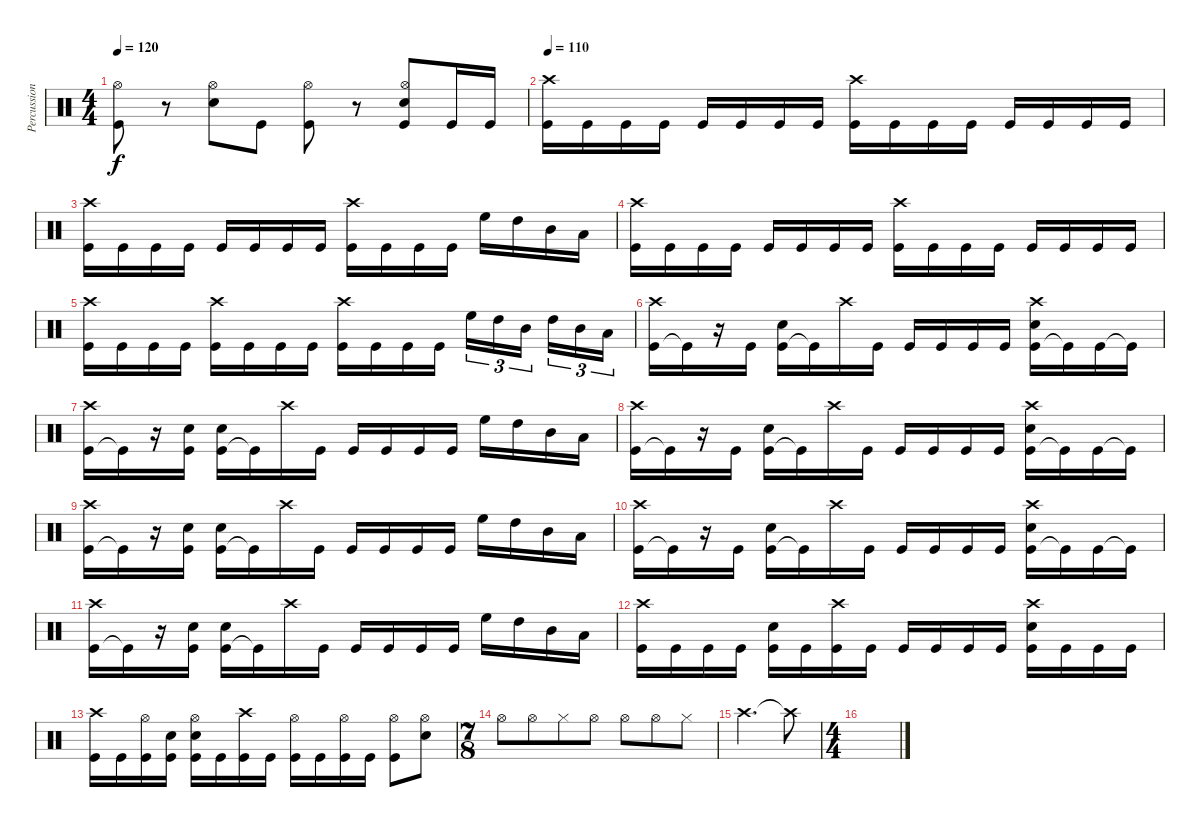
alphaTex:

\track ("Percussion" "Percussion") {instrument percussion}
\staff {score}
\articulation defaults
\ts (4 4)
\tempo 120
\clef neutral
\ks c
("Kick (hit)" "Hi-Hat (open)").8{dy f} r.8 ("Hi-Hat (open)" "Snare (hit) 2").8 "Kick (hit)".8 ("Kick (hit)" "Hi-Hat (open)").8 r.8 ("Kick (hit)" "Hi-Hat (open)" "Snare (hit) 2").8 "Kick (hit)".16 "Kick (hit)".16 |
\tempo 110
("Kick (hit)" "Crash high (hit)").16 "Kick (hit)".16 "Kick (hit)".16 "Kick (hit)".16 "Kick (hit)".16 "Kick (hit)".16 "Kick (hit)".16 "Kick (hit)".16 ("Kick (hit)" "Crash high (hit)").16 "Kick (hit)".16 "Kick (hit)".16 "Kick (hit)".16 "Kick (hit)".16 "Kick (hit)".16 "Kick (hit)".16 "Kick (hit)".16 |
("Kick (hit)" "Crash high (hit)").16 "Kick (hit)".16 "Kick (hit)".16 "Kick (hit)".16 "Kick (hit)".16 "Kick (hit)".16 "Kick (hit)".16 "Kick (hit)".16 ("Kick (hit)" "Crash high (hit)").16 "Kick (hit)".16 "Kick (hit)".16 "Kick (hit)".16 "High Floor Tom (hit)".16 "High Tom (hit)".16 "Mid Tom (hit)".16 "Low Tom (hit)".16 |
("Kick (hit)" "Crash high (hit)").16 "Kick (hit)".16 "Kick (hit)".16 "Kick (hit)".16 "Kick (hit)".16 "Kick (hit)".16 "Kick (hit)".16 "Kick (hit)".16 ("Kick (hit)" "Crash high (hit)").16 "Kick (hit)".16 "Kick (hit)".16 "Kick (hit)".16 "Kick (hit)".16 "Kick (hit)".16 "Kick (hit)".16 "Kick (hit)".16 |
("Kick (hit)" "Crash high (hit)").16 "Kick (hit)".16 "Kick (hit)".16 "Kick (hit)".16 ("Kick (hit)" "Crash high (hit)").16 "Kick (hit)".16 "Kick (hit)".16 "Kick (hit)".16 ("Kick (hit)" "Crash high (hit)").16 "Kick (hit)".16 "Kick (hit)".16 "Kick (hit)".16 "High Floor Tom (hit)".16{tu (3 2)} "High Tom (hit)".16{tu (3 2)} "Mid Tom (hit)".16{tu (3 2) beam splitsecondary} "High Tom (hit)".16{tu (3 2)} "Mid Tom (hit)".16{tu (3 2)} "Low Tom (hit)".16{tu (3 2)} |
("Kick (hit)" "Crash high (hit)").16 "Kick (hit)"{t}.16 r.16 "Kick (hit)".16 ("Kick (hit)" "Snare (hit) 2").16 "Kick (hit)"{t}.16 "Crash high (hit)".16 "Kick (hit)".16 "Kick (hit)".16 "Kick (hit)".16 "Kick (hit)".16 "Kick (hit)".16 ("Kick (hit)" "Crash high (hit)" "Snare (hit) 2").16 "Kick (hit)"{t}.16 "Kick (hit)".16 "Kick (hit)"{t}.16 |
("Kick (hit)" "Crash high (hit)").16 "Kick (hit)"{t}.16 r.16 ("Kick (hit)" "Snare (hit) 2").16 ("Kick (hit)" "Snare (hit) 2").16 "Kick (hit)"{t}.16 "Crash high (hit)".16 "Kick (hit)".16 "Kick (hit)".16 "Kick (hit)".16 "Kick (hit)".16 "Kick (hit)".16 "High Floor Tom (hit)".16 "High Tom (hit)".16 "Mid Tom (hit)".16 "Low Tom (hit)".16 |
("Kick (hit)" "Crash high (hit)").16 "Kick (hit)"{t}.16 r.16 "Kick (hit)".16 ("Kick (hit)" "Snare (hit) 2").16 "Kick (hit)"{t}.16 "Crash high (hit)".16 "Kick (hit)".16 "Kick (hit)".16 "Kick (hit)".16 "Kick (hit)".16 "Kick (hit)".16 ("Kick (hit)" "Crash high (hit)" "Snare (hit) 2").16 "Kick (hit)"{t}.16 "Kick (hit)".16 "Kick (hit)"{t}.16 |
("Kick (hit)" "Crash high (hit)").16 "Kick (hit)"{t}.16 r.16 ("Kick (hit)" "Snare (hit) 2").16 ("Kick (hit)" "Snare (hit) 2").16 "Kick (hit)"{t}.16 "Crash high (hit)".16 "Kick (hit)".16 "Kick (hit)".16 "Kick (hit)".16 "Kick (hit)".16 "Kick (hit)".16 "High Floor Tom (hit)".16 "High Tom (hit)".16 "Mid Tom (hit)".16 "Low Tom (hit)".16 |
("Kick (hit)" "Crash high (hit)").16 "Kick (hit)"{t}.16 r.16 "Kick (hit)".16 ("Kick (hit)" "Snare (hit) 2").16 "Kick (hit)"{t}.16 "Crash high (hit)".16 "Kick (hit)".16 "Kick (hit)".16 "Kick (hit)".16 "Kick (hit)".16 "Kick (hit)".16 ("Kick (hit)" "Crash high (hit)" "Snare (hit) 2").16 "Kick (hit)"{t}.16 "Kick (hit)".16 "Kick (hit)"{t}.16 |
("Kick (hit)" "Crash high (hit)").16 "Kick (hit)"{t}.16 r.16 ("Kick (hit)" "Snare (hit) 2").16 ("Kick (hit)" "Snare (hit) 2").16 "Kick (hit)"{t}.16 "Crash high (hit)".16 "Kick (hit)".16 "Kick (hit)".16 "Kick (hit)".16 "Kick (hit)".16 "Kick (hit)".16 "High Floor Tom (hit)".16 "High Tom (hit)".16 "Mid Tom (hit)".16 "Low Tom (hit)".16 |
("Kick (hit)" "Crash high (hit)").16 "Kick (hit)".16 "Kick (hit)".16 "Kick (hit)".16 ("Kick (hit)" "Snare (hit) 2").16 "Kick (hit)".16 ("Kick (hit)" "Crash high (hit)").16 "Kick (hit)".16 "Kick (hit)".16 "Kick (hit)".16 "Kick (hit)".16 "Kick (hit)".16 ("Kick (hit)" "Crash high (hit)" "Snare (hit) 2").16 "Kick (hit)".16 "Kick (hit)".16 "Kick (hit)".16 |
("Kick (hit)" "Crash high (hit)").16 "Kick (hit)".16 ("Kick (hit)" "Hi-Hat (open)").16 ("Kick (hit)" "Snare (hit) 2").16 ("Kick (hit)" "Snare (hit) 2" "Hi-Hat (open)").16 "Kick (hit)".16 ("Kick (hit)" "Crash high (hit)").16 "Kick (hit)".16 ("Kick (hit)" "Hi-Hat (open)").16 "Kick (hit)".16 ("Kick (hit)" "Hi-Hat (open)").16 "Kick (hit)".16 ("Hi-Hat (open)" "Kick (hit)").8 ("Hi-Hat (open)" "Snare (hit) 2").8 |
\ts (7 8)
"Hi-Hat (open)".8 "Hi-Hat (open)".8 "Hi-Hat (closed)".8 "Hi-Hat (open)".8 "Hi-Hat (open)".8 "Hi-Hat (open)".8 "Hi-Hat (closed)".8 |
"Crash high (hit)".2{d} "Crash high (hit)"{t}.8 |
\ts (4 4)
